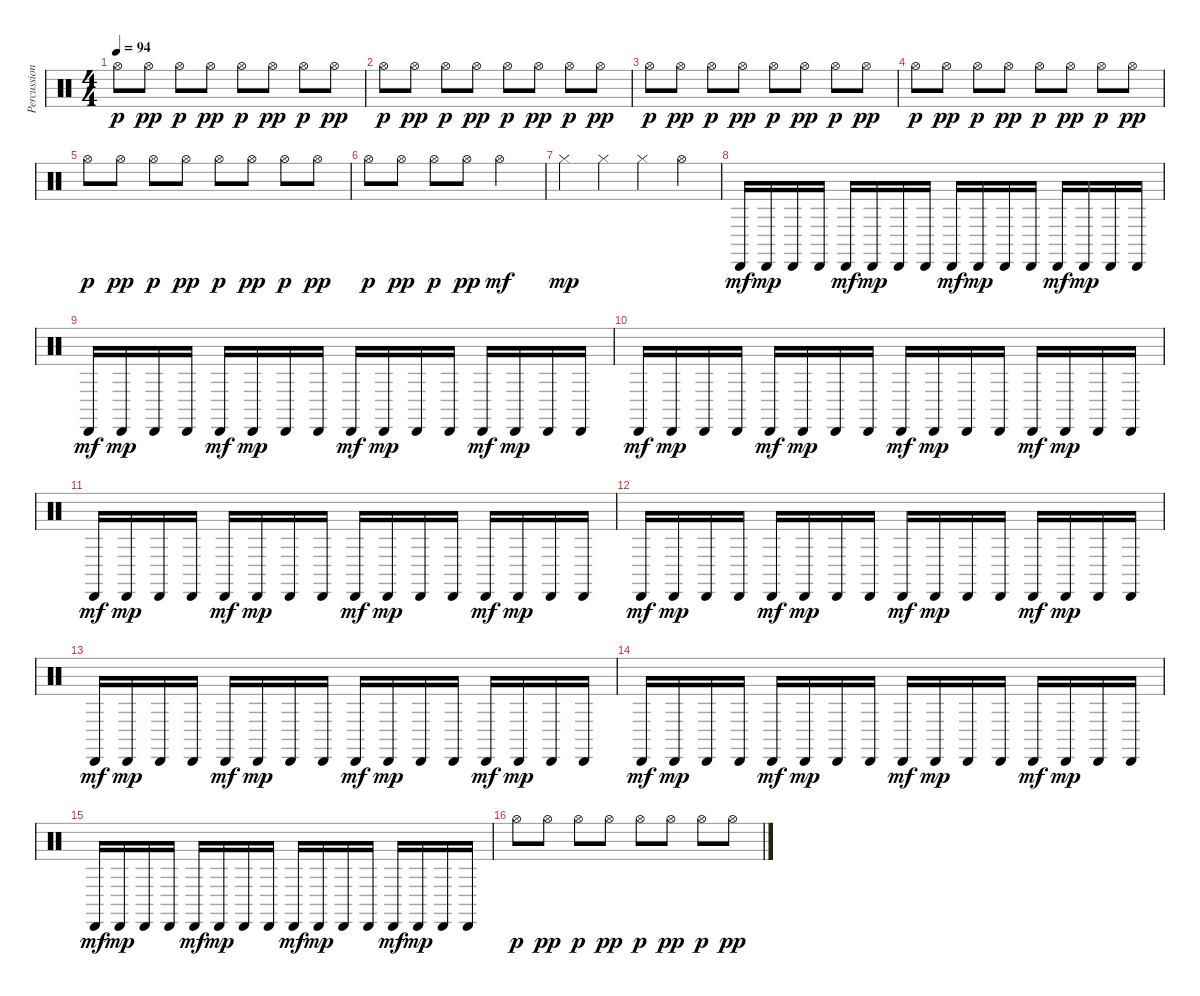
\track ("Percussions" "Percussion") {instrument percussion}
\staff {score}
\articulation defaults
\ts (4 4)
\tempo 94
\clef neutral
\ks c "Hi-Hat (open)".8{dy p} "Hi-Hat (open)".8{dy pp} "Hi-Hat (open)".8{dy p} "Hi-Hat (open)".8{dy pp} "Hi-Hat (open)".8{dy p} "Hi-Hat (open)".8{dy pp} "Hi-Hat (open)".8{dy p} "Hi-Hat (open)".8{dy pp}
|
"Hi-Hat (open)".8{dy p} "Hi-Hat (open)".8{dy pp} "Hi-Hat (open)".8{dy p} "Hi-Hat (open)".8{dy pp} "Hi-Hat (open)".8{dy p} "Hi-Hat (open)".8{dy pp} "Hi-Hat (open)".8{dy p} "Hi-Hat (open)".8{dy pp} |
"Hi-Hat (open)".8{dy p} "Hi-Hat (open)".8{dy pp} "Hi-Hat (open)".8{dy p} "Hi-Hat (open)".8{dy pp} "Hi-Hat (open)".8{dy p} "Hi-Hat (open)".8{dy pp} "Hi-Hat (open)".8{dy p} "Hi-Hat (open)".8{dy pp} |
"Hi-Hat (open)".8{dy p} "Hi-Hat (open)".8{dy pp} "Hi-Hat (open)".8{dy p} "Hi-Hat (open)".8{dy pp} "Hi-Hat (open)".8{dy p} "Hi-Hat (open)".8{dy pp} "Hi-Hat (open)".8{dy p} "Hi-Hat (open)".8{dy pp} |
"Hi-Hat (open)".8{dy p} "Hi-Hat (open)".8{dy pp} "Hi-Hat (open)".8{dy p} "Hi-Hat (open)".8{dy pp} "Hi-Hat (open)".8{dy p} "Hi-Hat (open)".8{dy pp} "Hi-Hat (open)".8{dy p} "Hi-Hat (open)".8{dy pp} |
"Hi-Hat (open)".8{dy p} "Hi-Hat (open)".8{dy pp} "Hi-Hat (open)".8{dy p} "Hi-Hat (open)".8{dy pp} "Hi-Hat (open)".2{dy mf} |
"Hi-Hat (closed)".4{dy mp} "Hi-Hat (closed)".4 "Hi-Hat (closed)".4 "Hi-Hat (open)".4 |
"Cabasa (hit)".16{dy mf} "Cabasa (hit)".16{dy mp} "Cabasa (hit)".16 "Cabasa (hit)".16 "Cabasa (hit)".16{dy mf} "Cabasa (hit)".16{dy mp} "Cabasa (hit)".16 "Cabasa (hit)".16 "Cabasa (hit)".16{dy mf} "Cabasa (hit)".16{dy mp} "Cabasa (hit)".16 "Cabasa (hit)".16 "Cabasa (hit)".16{dy mf} "Cabasa (hit)".16{dy mp} "Cabasa (hit)".16 "Cabasa (hit)".16 |
"Cabasa (hit)".16{dy mf} "Cabasa (hit)".16{dy mp} "Cabasa (hit)".16 "Cabasa (hit)".16 "Cabasa (hit)".16{dy mf} "Cabasa (hit)".16{dy mp} "Cabasa (hit)".16 "Cabasa (hit)".16 "Cabasa (hit)".16{dy mf} "Cabasa (hit)".16{dy mp} "Cabasa (hit)".16 "Cabasa (hit)".16 "Cabasa (hit)".16{dy mf} "Cabasa (hit)".16{dy mp} "Cabasa (hit)".16 "Cabasa (hit)".16 |
"Cabasa (hit)".16{dy mf} "Cabasa (hit)".16{dy mp} "Cabasa (hit)".16 "Cabasa (hit)".16 "Cabasa (hit)".16{dy mf} "Cabasa (hit)".16{dy mp} "Cabasa (hit)".16 "Cabasa (hit)".16 "Cabasa (hit)".16{dy mf} "Cabasa (hit)".16{dy mp} "Cabasa (hit)".16 "Cabasa (hit)".16 "Cabasa (hit)".16{dy mf} "Cabasa (hit)".16{dy mp} "Cabasa (hit)".16 "Cabasa (hit)".16 |
"Cabasa (hit)".16{dy mf} "Cabasa (hit)".16{dy mp} "Cabasa (hit)".16 "Cabasa (hit)".16 "Cabasa (hit)".16{dy mf} "Cabasa (hit)".16{dy mp} "Cabasa (hit)".16 "Cabasa (hit)".16 "Cabasa (hit)".16{dy mf} "Cabasa (hit)".16{dy mp} "Cabasa (hit)".16 "Cabasa (hit)".16 "Cabasa (hit)".16{dy mf} "Cabasa (hit)".16{dy mp} "Cabasa (hit)".16 "Cabasa (hit)".16 |
"Cabasa (hit)".16{dy mf} "Cabasa (hit)".16{dy mp} "Cabasa (hit)".16 "Cabasa (hit)".16 "Cabasa (hit)".16{dy mf} "Cabasa (hit)".16{dy mp} "Cabasa (hit)".16 "Cabasa (hit)".16 "Cabasa (hit)".16{dy mf} "Cabasa (hit)".16{dy mp} "Cabasa (hit)".16 "Cabasa (hit)".16 "Cabasa (hit)".16{dy mf} "Cabasa (hit)".16{dy mp} "Cabasa (hit)".16 "Cabasa (hit)".16 |
"Cabasa (hit)".16{dy mf} "Cabasa (hit)".16{dy mp} "Cabasa (hit)".16 "Cabasa (hit)".16 "Cabasa (hit)".16{dy mf} "Cabasa (hit)".16{dy mp} "Cabasa (hit)".16 "Cabasa (hit)".16 "Cabasa (hit)".16{dy mf} "Cabasa (hit)".16{dy mp} "Cabasa (hit)".16 "Cabasa (hit)".16 "Cabasa (hit)".16{dy mf} "Cabasa (hit)".16{dy mp} "Cabasa (hit)".16 "Cabasa (hit)".16 |
"Cabasa (hit)".16{dy mf} "Cabasa (hit)".16{dy mp} "Cabasa (hit)".16 "Cabasa (hit)".16 "Cabasa (hit)".16{dy mf} "Cabasa (hit)".16{dy mp} "Cabasa (hit)".16 "Cabasa (hit)".16 "Cabasa (hit)".16{dy mf} "Cabasa (hit)".16{dy mp} "Cabasa (hit)".16 "Cabasa (hit)".16 "Cabasa (hit)".16{dy mf} "Cabasa (hit)".16{dy mp} "Cabasa (hit)".16 "Cabasa (hit)".16 |
"Cabasa (hit)".16{dy mf} "Cabasa (hit)".16{dy mp} "Cabasa (hit)".16 "Cabasa (hit)".16 "Cabasa (hit)".16{dy mf} "Cabasa (hit)".16{dy mp} "Cabasa (hit)".16 "Cabasa (hit)".16 "Cabasa (hit)".16{dy mf} "Cabasa (hit)".16{dy mp} "Cabasa (hit)".16 "Cabasa (hit)".16 "Cabasa (hit)".16{dy mf} "Cabasa (hit)".16{dy mp} "Cabasa (hit)".16 "Cabasa (hit)".16 |
"Hi-Hat (open)".8{dy p} "Hi-Hat (open)".8{dy pp} "Hi-Hat (open)".8{dy p} "Hi-Hat (open)".8{dy pp} "Hi-Hat (open)".8{dy p} "Hi-Hat (open)".8{dy pp} "Hi-Hat (open)".8{dy p} "Hi-Hat (open)".8{dy pp}
